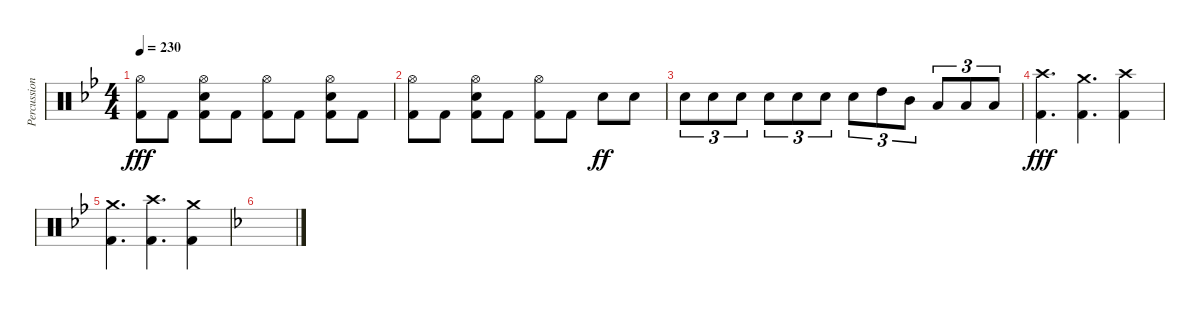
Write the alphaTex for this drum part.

\track ("Percussion" "Percussion") {instrument percussion}
\staff {score}
\articulation defaults
\ts (4 4)
\tempo 230
\clef neutral
\ks gminor
("Hi-Hat (open)" "Kick (hit) 2").8{dy fff} "Kick (hit) 2".8 ("Hi-Hat (open)" "Electric Snare (hit)" "Kick (hit) 2").8 "Kick (hit) 2".8 ("Hi-Hat (open)" "Kick (hit) 2").8 "Kick (hit) 2".8 ("Hi-Hat (open)" "Electric Snare (hit)" "Kick (hit) 2").8 "Kick (hit) 2".8 |
("Hi-Hat (open)" "Kick (hit) 2").8 "Kick (hit) 2".8 ("Hi-Hat (open)" "Electric Snare (hit)" "Kick (hit) 2").8 "Kick (hit) 2".8 ("Hi-Hat (open)" "Kick (hit) 2").8 "Kick (hit) 2".8 "Electric Snare (hit)".8{dy ff} "Electric Snare (hit)".8 |
"Electric Snare (hit)".8{tu (3 2)} "Electric Snare (hit)".8{tu (3 2)} "Electric Snare (hit)".8{tu (3 2)} "Electric Snare (hit)".8{tu (3 2)} "Electric Snare (hit)".8{tu (3 2)} "Electric Snare (hit)".8{tu (3 2)} "Electric Snare (hit)".8{tu (3 2)} "High Tom (hit)".8{tu (3 2)} "Mid Tom (hit)".8{tu (3 2)} "Low Tom (hit)".8{tu (3 2)} "Low Tom (hit)".8{tu (3 2)} "Low Tom (hit)".8{tu (3 2)} |
("Crash high (hit)" "Kick (hit) 2").4{d dy fff} ("Crash medium (hit)" "Kick (hit) 2").4{d} ("Crash high (hit)" "Kick (hit) 2").4 |
("Crash medium (hit)" "Kick (hit) 2").4{d} ("Crash high (hit)" "Kick (hit) 2").4{d} ("Crash medium (hit)" "Kick (hit) 2").4 |
\ks dminor
